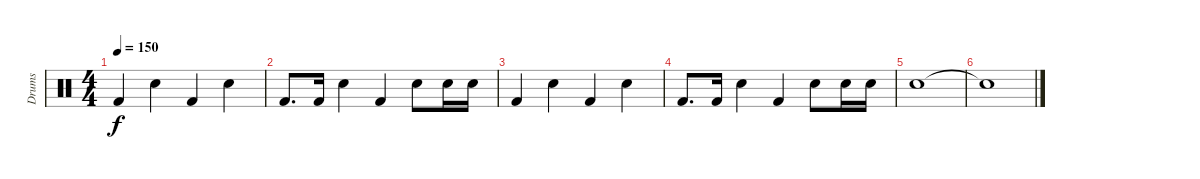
\track ("Drums" "Drums") {instrument percussion}
\staff {score}
\articulation defaults
\ts (4 4)
\tempo 150
\clef neutral
\ks c "Kick (hit) 2".4{dy f} "Electric Snare (hit)".4 "Kick (hit) 2".4 "Electric Snare (hit)".4
|
"Kick (hit) 2".8{d} "Kick (hit) 2".16 "Electric Snare (hit)".4 "Kick (hit) 2".4 "Electric Snare (hit)".8 "Electric Snare (hit)".16 "Electric Snare (hit)".16 |
"Kick (hit) 2".4 "Electric Snare (hit)".4 "Kick (hit) 2".4 "Electric Snare (hit)".4 |
"Kick (hit) 2".8{d} "Kick (hit) 2".16 "Electric Snare (hit)".4 "Kick (hit) 2".4 "Electric Snare (hit)".8 "Electric Snare (hit)".16 "Electric Snare (hit)".16 |
"Electric Snare (hit)".1 |
"Snare (hit)"{t}.1
